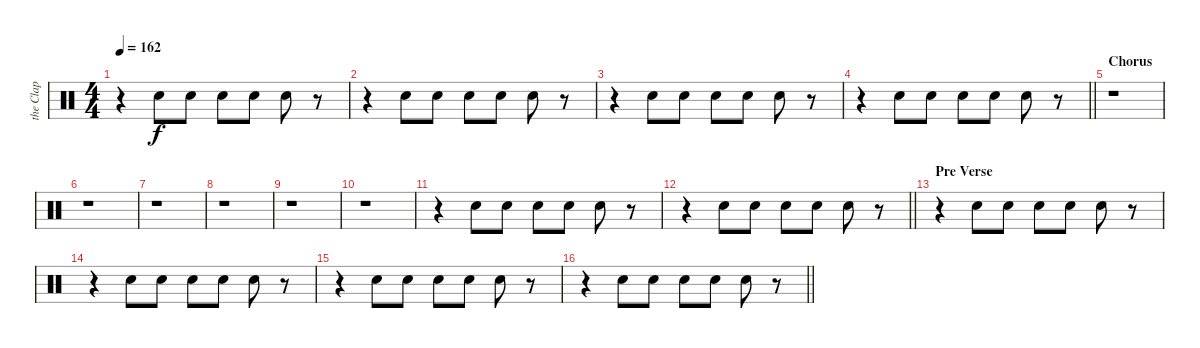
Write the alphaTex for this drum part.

\track ("the Clap" "the Clap") {instrument percussion}
\staff {score}
\articulation defaults
\ts (4 4)
\tempo 162
\clef neutral
\ks c
r.4{dy f} "Hand Clap (hit)".8 "Hand Clap (hit)".8 "Hand Clap (hit)".8 "Hand Clap (hit)".8 "Hand Clap (hit)".8 r.8 |
r.4 "Hand Clap (hit)".8 "Hand Clap (hit)".8 "Hand Clap (hit)".8 "Hand Clap (hit)".8 "Hand Clap (hit)".8 r.8 |
r.4 "Hand Clap (hit)".8 "Hand Clap (hit)".8 "Hand Clap (hit)".8 "Hand Clap (hit)".8 "Hand Clap (hit)".8 r.8 |
\barLineRight lightlight
r.4 "Hand Clap (hit)".8 "Hand Clap (hit)".8 "Hand Clap (hit)".8 "Hand Clap (hit)".8 "Hand Clap (hit)".8 r.8 |
\section ("" "Chorus")
r.1 |
r.1 |
r.1 |
r.1 |
r.1 |
r.1 |
r.4 "Hand Clap (hit)".8 "Hand Clap (hit)".8 "Hand Clap (hit)".8 "Hand Clap (hit)".8 "Hand Clap (hit)".8 r.8 |
\barLineRight lightlight
r.4 "Hand Clap (hit)".8 "Hand Clap (hit)".8 "Hand Clap (hit)".8 "Hand Clap (hit)".8 "Hand Clap (hit)".8 r.8 |
\section ("" "Pre Verse")
r.4 "Hand Clap (hit)".8 "Hand Clap (hit)".8 "Hand Clap (hit)".8 "Hand Clap (hit)".8 "Hand Clap (hit)".8 r.8 |
r.4 "Hand Clap (hit)".8 "Hand Clap (hit)".8 "Hand Clap (hit)".8 "Hand Clap (hit)".8 "Hand Clap (hit)".8 r.8 |
r.4 "Hand Clap (hit)".8 "Hand Clap (hit)".8 "Hand Clap (hit)".8 "Hand Clap (hit)".8 "Hand Clap (hit)".8 r.8 |
\barLineRight lightlight
r.4 "Hand Clap (hit)".8 "Hand Clap (hit)".8 "Hand Clap (hit)".8 "Hand Clap (hit)".8 "Hand Clap (hit)".8 r.8
